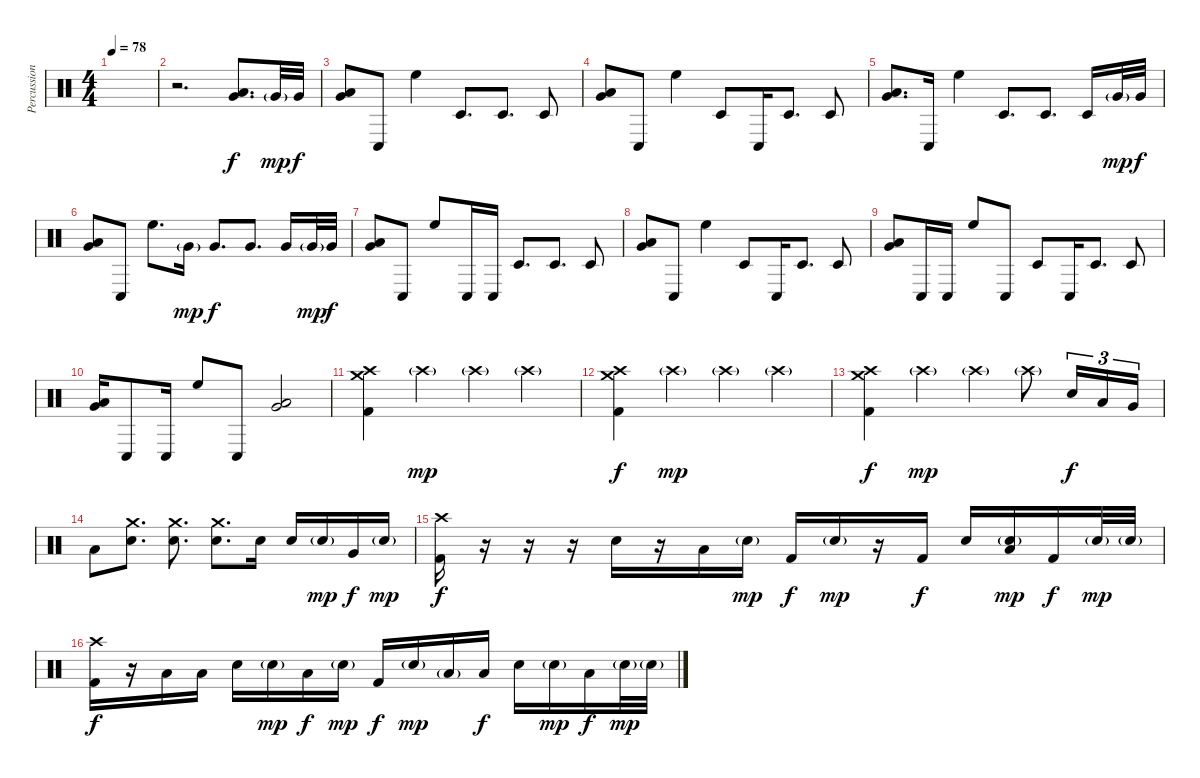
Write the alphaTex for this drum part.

\track ("Percussion" "Percussion") {instrument percussion}
\staff {score}
\articulation defaults
\ts (4 4)
\tempo 78
\clef neutral
\ks c
|
r.2{d} ("Low Tom (hit)" "Very Low Tom (hit)").8{d} "Very Low Tom (hit)"{g}.32{dy mp} "Very Low Tom (hit)".32{dy f} |
("Very Low Tom (hit)" "Low Floor Tom (hit)").8 "Conga low (hit)".8 "High Floor Tom (hit)".4 "Timbale low (hit)".8{d} "Timbale low (hit)".8{d} "Timbale low (hit)".8 |
("Very Low Tom (hit)" "Low Floor Tom (hit)").8 "Conga low (hit)".8 "High Floor Tom (hit)".4 "Timbale low (hit)".8 "Conga low (hit)".16 "Timbale low (hit)".8{d} "Timbale low (hit)".8 |
("Very Low Tom (hit)" "Low Floor Tom (hit)").8{d} "Conga low (hit)".16 "High Floor Tom (hit)".4 "Timbale low (hit)".8{d} "Timbale low (hit)".8{d} "Timbale low (hit)".16 "Very Low Tom (hit)"{g}.32{dy mp} "Very Low Tom (hit)".32{dy f} |
("Very Low Tom (hit)" "Low Floor Tom (hit)").8 "Conga low (hit)".8 "High Floor Tom (hit)".8{d} "Very Low Tom (hit)"{g}.16{dy mp} "Very Low Tom (hit)".8{d dy f} "Very Low Tom (hit)".8{d} "Very Low Tom (hit)".16 "Very Low Tom (hit)"{g}.32{dy mp} "Very Low Tom (hit)".32{dy f} |
("Very Low Tom (hit)" "Low Floor Tom (hit)").8 "Conga low (hit)".8 "High Floor Tom (hit)".8 "Conga low (hit)".16 "Conga low (hit)".16 "Timbale low (hit)".8{d} "Timbale low (hit)".8{d} "Timbale low (hit)".8 |
("Very Low Tom (hit)" "Low Floor Tom (hit)").8 "Conga low (hit)".8 "High Floor Tom (hit)".4 "Timbale low (hit)".8 "Conga low (hit)".16 "Timbale low (hit)".8{d} "Timbale low (hit)".8 |
("Very Low Tom (hit)" "Low Floor Tom (hit)").8 "Conga low (hit)".16 "Conga low (hit)".16 "High Floor Tom (hit)".8 "Conga low (hit)".8 "Timbale low (hit)".8 "Conga low (hit)".16 "Timbale low (hit)".8{d} "Timbale low (hit)".8 |
("Very Low Tom (hit)" "Low Floor Tom (hit)").16 "Conga low (hit)".8 "Conga low (hit)".16 "High Floor Tom (hit)".8 "Conga low (hit)".8 ("Very Low Tom (hit)" "Low Floor Tom (hit)").2 |
("Crash medium (hit)" "Crash high (hit)" "Kick (hit) 2").4 "Crash high (hit)"{g}.4{dy mp} "Crash high (hit)"{g}.4 "Crash high (hit)"{g}.4 |
("Crash medium (hit)" "Crash high (hit)" "Kick (hit) 2").4{dy f} "Crash high (hit)"{g}.4{dy mp} "Crash high (hit)"{g}.4 "Crash high (hit)"{g}.4 |
("Crash medium (hit)" "Crash high (hit)" "Kick (hit) 2").4{dy f} "Crash high (hit)"{g}.4{dy mp} "Crash high (hit)"{g}.4 "Crash high (hit)"{g}.8 "Electric Snare (hit)".16{tu (3 2) dy f} "Low Tom (hit)".16{tu (3 2)} "Very Low Tom (hit)".16{tu (3 2)} |
"Low Floor Tom (hit)".8 ("Crash medium (hit)" "Electric Snare (hit)").8{d} ("Crash medium (hit)" "Electric Snare (hit)").8{d} ("Crash medium (hit)" "Electric Snare (hit)").8{d} "Electric Snare (hit)".16 "Electric Snare (hit)".16 "Electric Snare (hit)"{g}.16{dy mp} "Very Low Tom (hit)".16{dy f} "Electric Snare (hit)"{g}.16{dy mp} |
("Crash high (hit)" "Kick (hit) 2").16{dy f} r.16 r.16 r.16 "Electric Snare (hit)".16 r.16 "Low Floor Tom (hit)".16 "Electric Snare (hit)"{g}.16{dy mp} "Kick (hit) 2".16{dy f} "Electric Snare (hit)"{g}.16{dy mp} r.16 "Kick (hit) 2".16{dy f} "Electric Snare (hit)".16 ("Low Floor Tom (hit)" "Electric Snare (hit)"{g}).16{dy mp} "Kick (hit) 2".16{dy f} "Electric Snare (hit)"{g}.32{dy mp} "Electric Snare (hit)"{g}.32 |
("Crash high (hit)" "Kick (hit) 2").16{dy f} r.16 "Low Floor Tom (hit)".16 "Low Floor Tom (hit)".16 "Electric Snare (hit)".16 "Electric Snare (hit)"{g}.16{dy mp} "Low Floor Tom (hit)".16{dy f} "Electric Snare (hit)"{g}.16{dy mp} "Kick (hit) 2".16{dy f} "Electric Snare (hit)"{g}.16{dy mp} "Low Floor Tom (hit)"{g}.16 "Low Floor Tom (hit)".16{dy f} "Electric Snare (hit)".16 "Electric Snare (hit)"{g}.16{dy mp} "Low Floor Tom (hit)".16{dy f} "Electric Snare (hit)"{g}.32{dy mp} "Electric Snare (hit)"{g}.32
